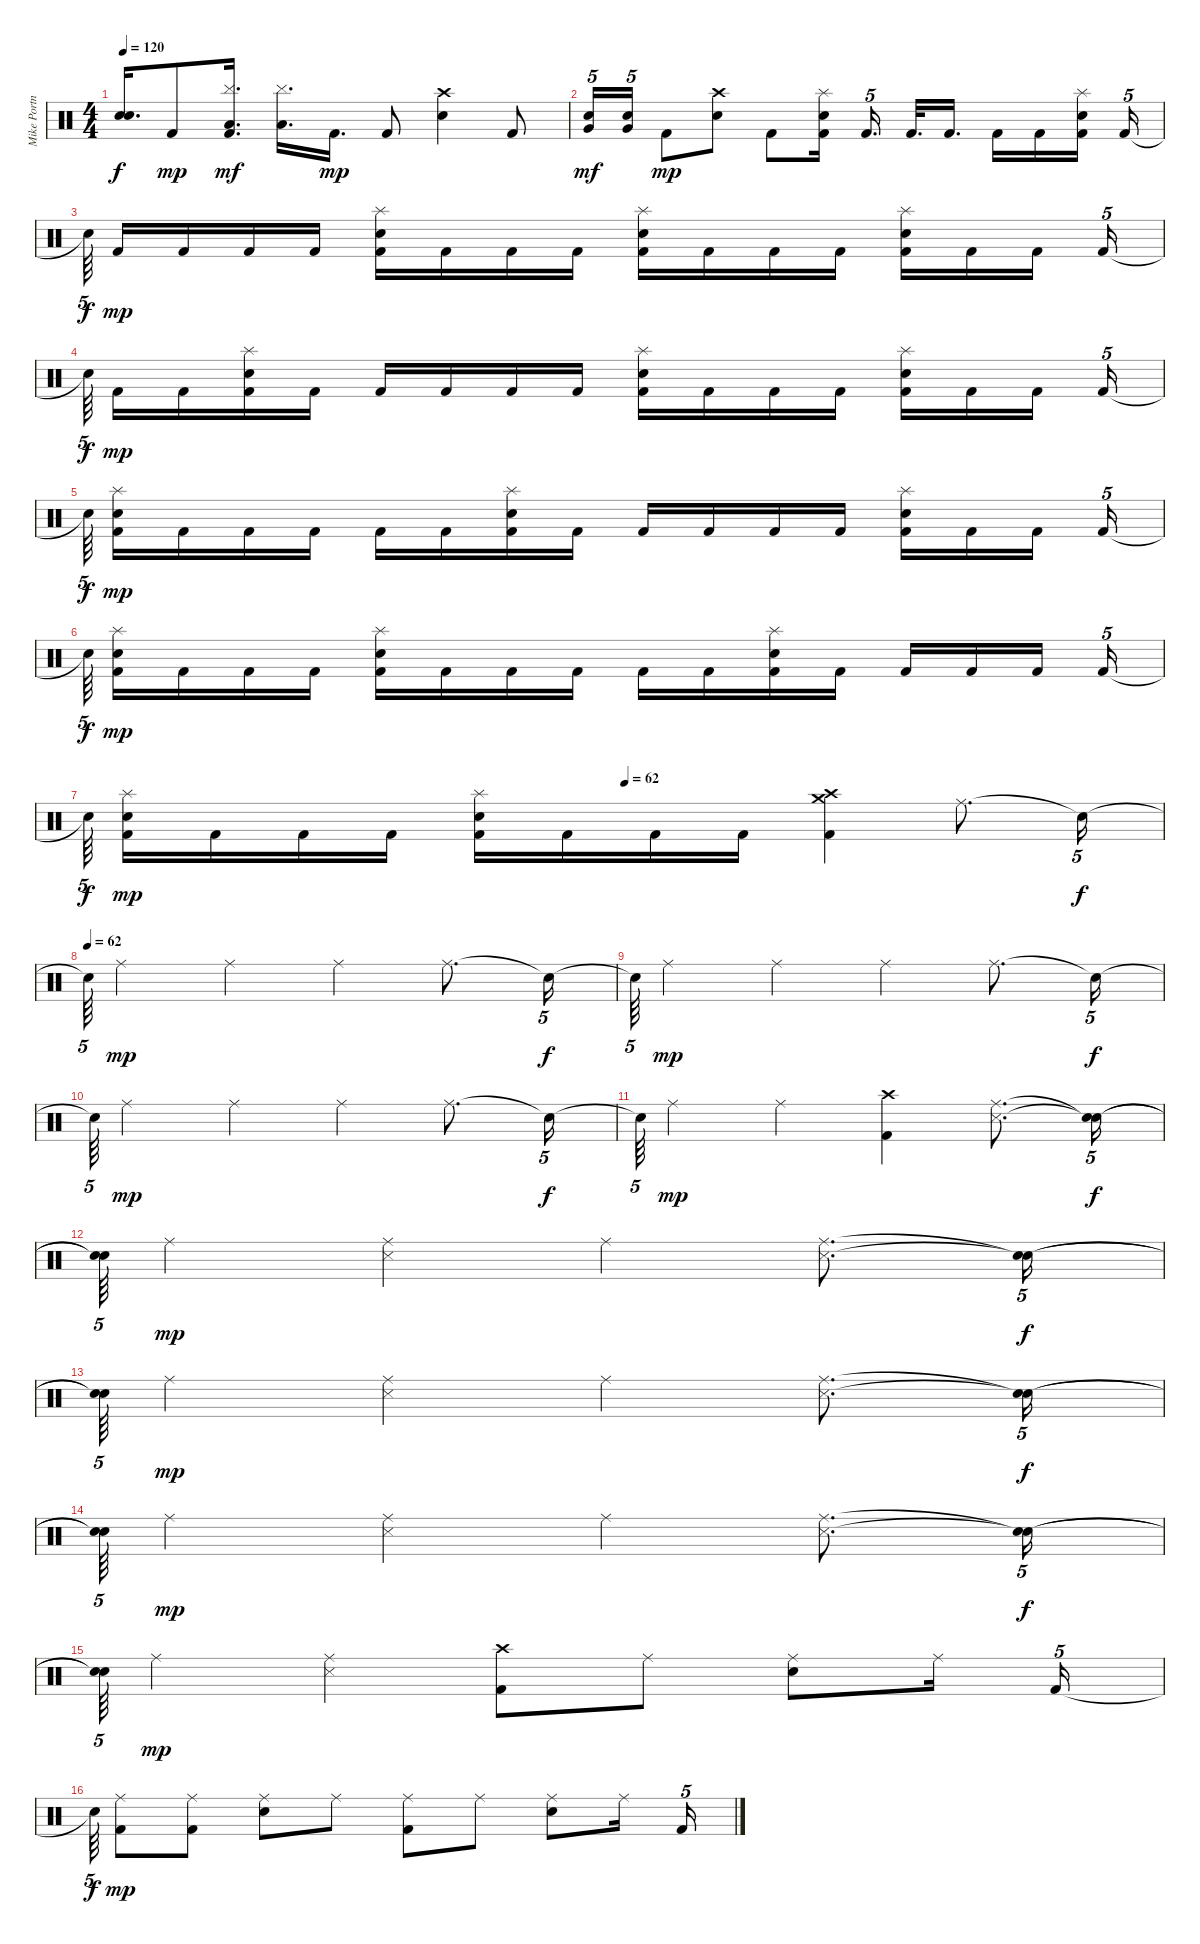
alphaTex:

\track ("Mike Portnoy" "Mike Portn") {instrument percussion}
\staff {score}
\articulation defaults
\ts (4 4)
\tempo 120
\clef neutral
\ks c
("Snare (hit)"{t} "Snare (hit)"{t}).16{d dy f} "Kick (hit) 2".8{dy mp} ("Kick (hit) 2" "Cymbal (hit)" "Low Tom (hit)").16{d dy mf balance 10} ("Cymbal (hit)" "Low Tom (hit)").16{d} "Kick (hit) 2".16{d dy mp} "Kick (hit) 2".8 ("Electric Snare (hit)" "Crash high (hit)").4 "Kick (hit) 2".8 |
("Snare (hit)" "Very Low Tom (hit)").16{tu (5 4) dy mf balance 12} ("Snare (hit)" "Very Low Tom (hit)").16{tu (5 4)} "Kick (hit) 2".8{dy mp} ("Electric Snare (hit)" "Crash high (hit)").8 "Kick (hit) 2".8 ("Kick (hit) 2" "Electric Snare (hit)" "Splash (hit)").16 "Kick (hit) 2".16{d tu (5 4)} "Kick (hit) 2".32{d} "Kick (hit) 2".16{d} "Kick (hit) 2".16 "Kick (hit) 2".16 ("Kick (hit) 2" "Electric Snare (hit)" "Splash (hit)").16 "Kick (hit) 2".16{tu (5 4)} |
"Snare (hit)"{t}.64{tu (5 4) dy f} "Kick (hit) 2".16{dy mp} "Kick (hit) 2".16 "Kick (hit) 2".16 "Kick (hit) 2".16 ("Kick (hit) 2" "Electric Snare (hit)" "Splash (hit)").16 "Kick (hit) 2".16 "Kick (hit) 2".16 "Kick (hit) 2".16 ("Kick (hit) 2" "Electric Snare (hit)" "Splash (hit)").16 "Kick (hit) 2".16 "Kick (hit) 2".16 "Kick (hit) 2".16 ("Kick (hit) 2" "Electric Snare (hit)" "Splash (hit)").16 "Kick (hit) 2".16 "Kick (hit) 2".16 "Kick (hit) 2".16{tu (5 4)} |
"Snare (hit)"{t}.64{tu (5 4) dy f} "Kick (hit) 2".16{dy mp} "Kick (hit) 2".16 ("Kick (hit) 2" "Electric Snare (hit)" "Splash (hit)").16 "Kick (hit) 2".16 "Kick (hit) 2".16 "Kick (hit) 2".16 "Kick (hit) 2".16 "Kick (hit) 2".16 ("Kick (hit) 2" "Electric Snare (hit)" "Splash (hit)").16 "Kick (hit) 2".16 "Kick (hit) 2".16 "Kick (hit) 2".16 ("Kick (hit) 2" "Electric Snare (hit)" "Splash (hit)").16 "Kick (hit) 2".16 "Kick (hit) 2".16 "Kick (hit) 2".16{tu (5 4)} |
"Snare (hit)"{t}.64{tu (5 4) dy f} ("Kick (hit) 2" "Electric Snare (hit)" "Splash (hit)").16{dy mp} "Kick (hit) 2".16 "Kick (hit) 2".16 "Kick (hit) 2".16 "Kick (hit) 2".16 "Kick (hit) 2".16 ("Kick (hit) 2" "Electric Snare (hit)" "Splash (hit)").16 "Kick (hit) 2".16 "Kick (hit) 2".16 "Kick (hit) 2".16 "Kick (hit) 2".16 "Kick (hit) 2".16 ("Kick (hit) 2" "Electric Snare (hit)" "Splash (hit)").16 "Kick (hit) 2".16 "Kick (hit) 2".16 "Kick (hit) 2".16{tu (5 4)} |
"Snare (hit)"{t}.64{tu (5 4) dy f} ("Kick (hit) 2" "Electric Snare (hit)" "Splash (hit)").16{dy mp} "Kick (hit) 2".16 "Kick (hit) 2".16 "Kick (hit) 2".16 ("Kick (hit) 2" "Electric Snare (hit)" "Splash (hit)").16 "Kick (hit) 2".16 "Kick (hit) 2".16 "Kick (hit) 2".16 "Kick (hit) 2".16 "Kick (hit) 2".16 ("Kick (hit) 2" "Electric Snare (hit)" "Splash (hit)").16 "Kick (hit) 2".16 "Kick (hit) 2".16 "Kick (hit) 2".16 "Kick (hit) 2".16 "Kick (hit) 2".16{tu (5 4)} |
\tempo (62 0.5)
"Snare (hit)"{t}.64{tu (5 4) dy f} ("Kick (hit) 2" "Electric Snare (hit)" "Splash (hit)").16{dy mp} "Kick (hit) 2".16 "Kick (hit) 2".16 "Kick (hit) 2".16 ("Kick (hit) 2" "Electric Snare (hit)" "Splash (hit)").16 "Kick (hit) 2".16 "Kick (hit) 2".16 "Kick (hit) 2".16 ("Kick (hit) 2" "Crash medium (hit)" "Crash high (hit)").4 "Ride (middle)".8{d} "Snare (hit)"{t}.16{tu (5 4) dy f} |
\tempo (62)
"Snare (hit)"{t}.64{tu (5 4)} "Ride (middle)".4{dy mp} "Ride (middle)".4 "Ride (middle)".4 "Ride (middle)".8{d} "Snare (hit)"{t}.16{tu (5 4) dy f} |
"Snare (hit)"{t}.64{tu (5 4)} "Ride (middle)".4{dy mp} "Ride (middle)".4 "Ride (middle)".4 "Ride (middle)".8{d} "Snare (hit)"{t}.16{tu (5 4) dy f} |
"Snare (hit)"{t}.64{tu (5 4)} "Ride (middle)".4{dy mp} "Ride (middle)".4 "Ride (middle)".4 "Ride (middle)".8{d} "Snare (hit)"{t}.16{tu (5 4) dy f} |
"Snare (hit)"{t}.64{tu (5 4)} "Ride (middle)".4{dy mp} "Ride (middle)".4 ("Kick (hit) 2" "Crash high (hit)").4 ("Snare (side stick) 3" "Ride (middle)").8{d} ("Snare (hit)"{t} "Snare (hit)"{t}).16{tu (5 4) dy f} |
("Snare (hit)"{t} "Snare (hit)"{t}).64{tu (5 4)} "Ride (middle)".4{dy mp} ("Snare (side stick) 3" "Ride (middle)").4 "Ride (middle)".4 ("Snare (side stick) 3" "Ride (middle)").8{d} ("Snare (hit)"{t} "Snare (hit)"{t}).16{tu (5 4) dy f} |
("Snare (hit)"{t} "Snare (hit)"{t}).64{tu (5 4)} "Ride (middle)".4{dy mp} ("Snare (side stick) 3" "Ride (middle)").4 "Ride (middle)".4 ("Snare (side stick) 3" "Ride (middle)").8{d} ("Snare (hit)"{t} "Snare (hit)"{t}).16{tu (5 4) dy f} |
("Snare (hit)"{t} "Snare (hit)"{t}).64{tu (5 4)} "Ride (middle)".4{dy mp} ("Snare (side stick) 3" "Ride (middle)").4 "Ride (middle)".4 ("Snare (side stick) 3" "Ride (middle)").8{d} ("Snare (hit)"{t} "Snare (hit)"{t}).16{tu (5 4) dy f} |
("Snare (hit)"{t} "Snare (hit)"{t}).64{tu (5 4)} "Ride (middle)".4{dy mp} ("Snare (side stick) 3" "Ride (middle)").4 ("Kick (hit) 2" "Crash high (hit)").8 "Ride (middle)".8 ("Electric Snare (hit)" "Ride (middle)").8 "Ride (middle)".16 "Kick (hit) 2".16{tu (5 4)} |
"Snare (hit)"{t}.64{tu (5 4) dy f} ("Kick (hit) 2" "Ride (middle)").8{dy mp} ("Kick (hit) 2" "Ride (middle)").8 ("Electric Snare (hit)" "Ride (middle)").8 "Ride (middle)".8 ("Kick (hit) 2" "Ride (middle)").8 "Ride (middle)".8 ("Electric Snare (hit)" "Ride (middle)").8 "Ride (middle)".16 "Kick (hit) 2".16{tu (5 4)}
